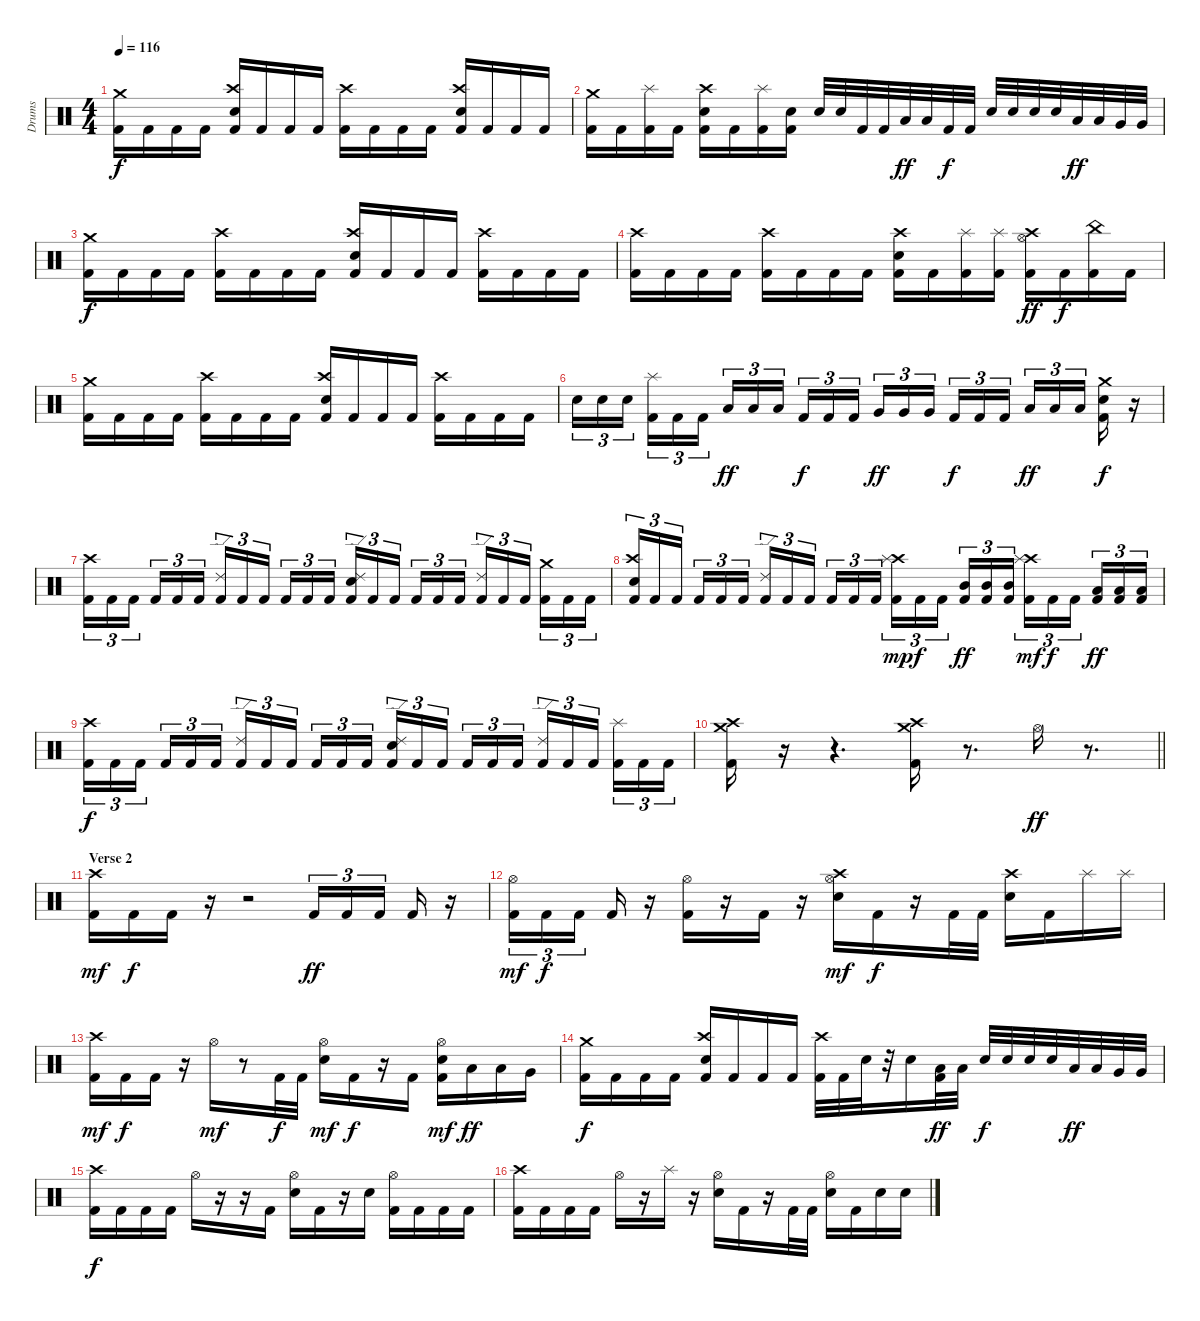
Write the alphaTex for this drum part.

\track ("Drums" "Drums") {instrument percussion}
\staff {score}
\articulation defaults
\ts (4 4)
\tempo 116
\clef neutral
\ks c
("Crash medium (hit)" "Kick (hit) 2").16{dy f} "Kick (hit) 2".16 "Kick (hit) 2".16 "Kick (hit) 2".16 ("Crash high (hit)" "Snare (hit) 2" "Kick (hit) 2").16 "Kick (hit) 2".16 "Kick (hit) 2".16 "Kick (hit) 2".16 ("Crash high (hit)" "Kick (hit) 2").16 "Kick (hit) 2".16 "Kick (hit) 2".16 "Kick (hit) 2".16 ("Crash high (hit)" "Snare (hit) 2" "Kick (hit) 2").16 "Kick (hit) 2".16 "Kick (hit) 2".16 "Kick (hit) 2".16 |
("Crash medium (hit)" "Kick (hit) 2").16 "Kick (hit) 2".16 ("Splash (hit)" "Kick (hit) 2").16 "Kick (hit) 2".16 ("Crash high (hit)" "Snare (hit) 2" "Kick (hit) 2").16 "Kick (hit) 2".16 ("Splash (hit)" "Kick (hit) 2").16 ("Snare (hit) 2" "Kick (hit) 2").16 "Snare (hit) 2".32 "Snare (hit) 2".32 "Kick (hit) 2".32 "Kick (hit) 2".32 "Low Tom (hit)".32{dy ff} "Low Tom (hit)".32 "Kick (hit) 2".32{dy f} "Kick (hit) 2".32 "Snare (hit) 2".32 "Snare (hit) 2".32 "Snare (hit) 2".32 "Snare (hit) 2".32 "Low Tom (hit)".32{dy ff} "Low Tom (hit)".32 "Very Low Tom (hit)".32 "Very Low Tom (hit)".32 |
("Crash medium (hit)" "Kick (hit) 2").16{dy f} "Kick (hit) 2".16 "Kick (hit) 2".16 "Kick (hit) 2".16 ("Crash high (hit)" "Kick (hit) 2").16 "Kick (hit) 2".16 "Kick (hit) 2".16 "Kick (hit) 2".16 ("Crash high (hit)" "Snare (hit) 2" "Kick (hit) 2").16 "Kick (hit) 2".16 "Kick (hit) 2".16 "Kick (hit) 2".16 ("Crash high (hit)" "Kick (hit) 2").16 "Kick (hit) 2".16 "Kick (hit) 2".16 "Kick (hit) 2".16 |
("Crash high (hit)" "Kick (hit) 2").16 "Kick (hit) 2".16 "Kick (hit) 2".16 "Kick (hit) 2".16 ("Crash high (hit)" "Kick (hit) 2").16 "Kick (hit) 2".16 "Kick (hit) 2".16 "Kick (hit) 2".16 ("Crash high (hit)" "Snare (hit) 2" "Kick (hit) 2").16 "Kick (hit) 2".16 ("Splash (hit)" "Kick (hit) 2").16 ("Splash (hit)" "Kick (hit) 2").16 ("Crash high (hit)" "Hi-Hat (open)" "Kick (hit) 2").16{dy ff} "Kick (hit) 2".16{dy f} ("China (hit)" "Kick (hit) 2").16 "Kick (hit) 2".16 |
("Crash medium (hit)" "Kick (hit) 2").16 "Kick (hit) 2".16 "Kick (hit) 2".16 "Kick (hit) 2".16 ("Crash high (hit)" "Kick (hit) 2").16 "Kick (hit) 2".16 "Kick (hit) 2".16 "Kick (hit) 2".16 ("Crash high (hit)" "Snare (hit) 2" "Kick (hit) 2").16 "Kick (hit) 2".16 "Kick (hit) 2".16 "Kick (hit) 2".16 ("Crash high (hit)" "Kick (hit) 2").16 "Kick (hit) 2".16 "Kick (hit) 2".16 "Kick (hit) 2".16 |
"Snare (hit) 2".16{tu (3 2)} "Snare (hit) 2".16{tu (3 2)} "Snare (hit) 2".16{tu (3 2)} ("Splash (hit)" "Kick (hit) 2").16{tu (3 2)} "Kick (hit) 2".16{tu (3 2)} "Kick (hit) 2".16{tu (3 2)} "Low Tom (hit)".16{tu (3 2) dy ff} "Low Tom (hit)".16{tu (3 2)} "Low Tom (hit)".16{tu (3 2)} "Kick (hit) 2".16{tu (3 2) dy f} "Kick (hit) 2".16{tu (3 2)} "Kick (hit) 2".16{tu (3 2)} "Very Low Tom (hit)".16{tu (3 2) dy ff} "Very Low Tom (hit)".16{tu (3 2)} "Very Low Tom (hit)".16{tu (3 2)} "Kick (hit) 2".16{tu (3 2) dy f} "Kick (hit) 2".16{tu (3 2)} "Kick (hit) 2".16{tu (3 2)} "Low Floor Tom (hit)".16{tu (3 2) dy ff} "Low Floor Tom (hit)".16{tu (3 2)} "Low Floor Tom (hit)".16{tu (3 2)} ("Crash medium (hit)" "Snare (hit) 2" "Kick (hit) 2").16{dy f} r.16 |
("Crash high (hit)" "Kick (hit) 2").16{tu (3 2)} "Kick (hit) 2".16{tu (3 2)} "Kick (hit) 2".16{tu (3 2)} "Kick (hit) 2".16{tu (3 2)} "Kick (hit) 2".16{tu (3 2)} "Kick (hit) 2".16{tu (3 2)} ("Ride (edge) 2" "Kick (hit) 2").16{tu (3 2)} "Kick (hit) 2".16{tu (3 2)} "Kick (hit) 2".16{tu (3 2)} "Kick (hit) 2".16{tu (3 2)} "Kick (hit) 2".16{tu (3 2)} "Kick (hit) 2".16{tu (3 2)} ("Ride (edge) 2" "Snare (hit) 2" "Kick (hit) 2").16{tu (3 2)} "Kick (hit) 2".16{tu (3 2)} "Kick (hit) 2".16{tu (3 2)} "Kick (hit) 2".16{tu (3 2)} "Kick (hit) 2".16{tu (3 2)} "Kick (hit) 2".16{tu (3 2)} ("Ride (edge) 2" "Kick (hit) 2").16{tu (3 2)} "Kick (hit) 2".16{tu (3 2)} "Kick (hit) 2".16{tu (3 2)} ("Crash medium (hit)" "Kick (hit) 2").16{tu (3 2)} "Kick (hit) 2".16{tu (3 2)} "Kick (hit) 2".16{tu (3 2)} |
("Crash high (hit)" "Snare (hit) 2" "Kick (hit) 2").16{tu (3 2)} "Kick (hit) 2".16{tu (3 2)} "Kick (hit) 2".16{tu (3 2)} "Kick (hit) 2".16{tu (3 2)} "Kick (hit) 2".16{tu (3 2)} "Kick (hit) 2".16{tu (3 2)} ("Ride (edge) 2" "Kick (hit) 2").16{tu (3 2)} "Kick (hit) 2".16{tu (3 2)} "Kick (hit) 2".16{tu (3 2)} "Kick (hit) 2".16{tu (3 2)} "Kick (hit) 2".16{tu (3 2)} "Kick (hit) 2".16{tu (3 2)} ("Crash high (hit)" "Splash (hit)" "Kick (hit) 2").16{tu (3 2) dy mp} "Kick (hit) 2".16{tu (3 2) dy f} "Kick (hit) 2".16{tu (3 2)} ("Mid Tom (hit)" "Kick (hit) 2").16{tu (3 2) dy ff} ("Mid Tom (hit)" "Kick (hit) 2").16{tu (3 2)} ("Mid Tom (hit)" "Kick (hit) 2").16{tu (3 2)} ("Crash high (hit)" "Splash (hit)" "Kick (hit) 2").16{tu (3 2) dy mf} "Kick (hit) 2".16{tu (3 2) dy f} "Kick (hit) 2".16{tu (3 2)} ("Low Tom (hit)" "Kick (hit) 2").16{tu (3 2) dy ff} ("Low Tom (hit)" "Kick (hit) 2").16{tu (3 2)} ("Low Tom (hit)" "Kick (hit) 2").16{tu (3 2)} |
("Crash high (hit)" "Kick (hit) 2").16{tu (3 2) dy f} "Kick (hit) 2".16{tu (3 2)} "Kick (hit) 2".16{tu (3 2)} "Kick (hit) 2".16{tu (3 2)} "Kick (hit) 2".16{tu (3 2)} "Kick (hit) 2".16{tu (3 2)} ("Ride (edge) 2" "Kick (hit) 2").16{tu (3 2)} "Kick (hit) 2".16{tu (3 2)} "Kick (hit) 2".16{tu (3 2)} "Kick (hit) 2".16{tu (3 2)} "Kick (hit) 2".16{tu (3 2)} "Kick (hit) 2".16{tu (3 2)} ("Ride (edge) 2" "Snare (hit) 2" "Kick (hit) 2").16{tu (3 2)} "Kick (hit) 2".16{tu (3 2)} "Kick (hit) 2".16{tu (3 2)} "Kick (hit) 2".16{tu (3 2)} "Kick (hit) 2".16{tu (3 2)} "Kick (hit) 2".16{tu (3 2)} ("Ride (edge) 2" "Kick (hit) 2").16{tu (3 2)} "Kick (hit) 2".16{tu (3 2)} "Kick (hit) 2".16{tu (3 2)} ("Splash (hit)" "Kick (hit) 2").16{tu (3 2)} "Kick (hit) 2".16{tu (3 2)} "Kick (hit) 2".16{tu (3 2)} |
\barLineRight lightlight
("Crash medium (hit)" "Crash high (hit)" "Kick (hit) 2").16 r.16 r.4{d} ("Crash medium (hit)" "Crash high (hit)" "Kick (hit) 2").16 r.8{d} "Hi-Hat (open)".16{dy ff} r.8{d} |
\section ("" "Verse 2")
("Crash high (hit)" "Kick (hit) 2").16{dy mf} "Kick (hit) 2".16{dy f} "Kick (hit) 2".16 r.16 r.2 "Kick (hit) 2".16{tu (3 2) dy ff} "Kick (hit) 2".16{tu (3 2)} "Kick (hit) 2".16{tu (3 2)} "Kick (hit) 2".16 r.16 |
("Hi-Hat (open)" "Kick (hit) 2").16{tu (3 2) dy mf} "Kick (hit) 2".16{tu (3 2) dy f} "Kick (hit) 2".16{tu (3 2)} "Kick (hit) 2".16 r.16 ("Hi-Hat (open)" "Kick (hit) 2").16 r.16 "Kick (hit) 2".16 r.16 ("Crash high (hit)" "Hi-Hat (open)" "Snare (hit) 2").16{dy mf} "Kick (hit) 2".16{dy f} r.16 "Kick (hit) 2".32 "Kick (hit) 2".32 ("Crash high (hit)" "Snare (hit) 2").16 "Kick (hit) 2".16 "Splash (hit)".16 "Splash (hit)".16 |
("Crash high (hit)" "Kick (hit) 2").16{dy mf} "Kick (hit) 2".16{dy f} "Kick (hit) 2".16 r.16 "Hi-Hat (open)".16{dy mf} r.8 "Kick (hit) 2".32{dy f} "Kick (hit) 2".32 ("Hi-Hat (open)" "Snare (hit) 2").16{dy mf} "Kick (hit) 2".16{dy f} r.16 "Kick (hit) 2".16 ("Hi-Hat (open)" "Snare (hit) 2" "Kick (hit) 2").16{dy mf} "Low Tom (hit)".16{dy ff} "Low Tom (hit)".16 "Very Low Tom (hit)".16 |
("Crash medium (hit)" "Kick (hit) 2").16{dy f} "Kick (hit) 2".16 "Kick (hit) 2".16 "Kick (hit) 2".16 ("Crash high (hit)" "Snare (hit) 2" "Kick (hit) 2").16 "Kick (hit) 2".16 "Kick (hit) 2".16 "Kick (hit) 2".16 ("Crash high (hit)" "Kick (hit) 2").32 "Kick (hit) 2".32 "Snare (hit) 2".32 r.32 "Snare (hit) 2".16 ("Low Tom (hit)" "Kick (hit) 2").32{dy ff} "Low Tom (hit)".32 "Snare (hit) 2".32{dy f} "Snare (hit) 2".32 "Snare (hit) 2".32 "Snare (hit) 2".32 "Low Tom (hit)".32{dy ff} "Low Tom (hit)".32 "Very Low Tom (hit)".32 "Very Low Tom (hit)".32 |
("Crash high (hit)" "Kick (hit) 2").16{dy f} "Kick (hit) 2".16 "Kick (hit) 2".16 "Kick (hit) 2".16 "Hi-Hat (open)".16 r.16 r.16 "Kick (hit) 2".16 ("Hi-Hat (open)" "Snare (hit) 2").16 "Kick (hit) 2".16 r.16 "Snare (hit) 2".16 ("Hi-Hat (open)" "Kick (hit) 2").16 "Kick (hit) 2".16 "Kick (hit) 2".16 "Kick (hit) 2".16 |
("Crash high (hit)" "Kick (hit) 2").16 "Kick (hit) 2".16 "Kick (hit) 2".16 "Kick (hit) 2".16 "Hi-Hat (open)".16 r.16 "Splash (hit)".16 r.16 ("Hi-Hat (open)" "Snare (hit) 2").16 "Kick (hit) 2".16 r.16 "Kick (hit) 2".32 "Kick (hit) 2".32 ("Hi-Hat (open)" "Snare (hit) 2").16 "Kick (hit) 2".16 "Snare (hit) 2".16 "Snare (hit) 2".16
